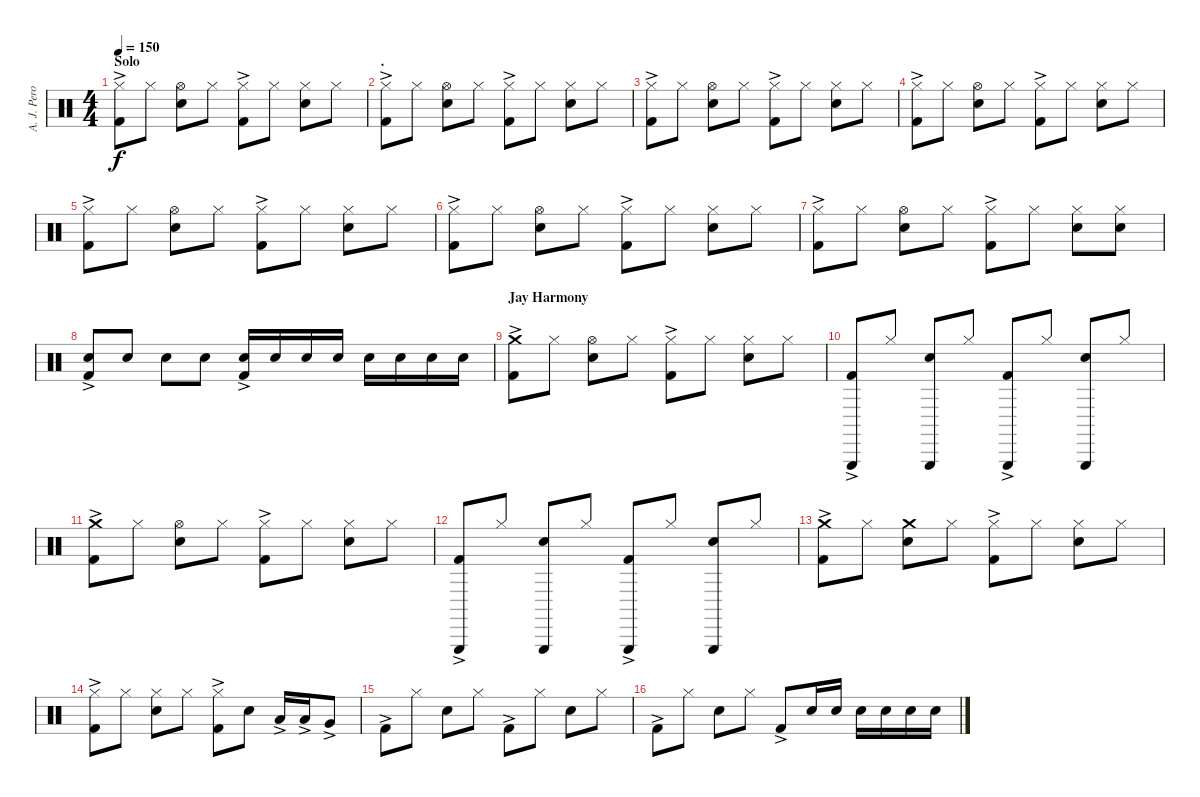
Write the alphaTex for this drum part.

\track ("A. J. Pero - Drums" "A. J. Pero") {instrument percussion}
\staff {score}
\articulation defaults
\ts (4 4)
\section ("" "Solo")
\tempo 150
\clef neutral
\ks c
("Hi-Hat (closed)" "Kick (hit) 2"{ac}).8{dy f} "Hi-Hat (closed)".8 ("Hi-Hat (open)" "Electric Snare (hit)").8 "Hi-Hat (closed)".8 ("Hi-Hat (closed)" "Kick (hit) 2"{ac}).8 "Hi-Hat (closed)".8 ("Hi-Hat (closed)" "Electric Snare (hit)").8 "Hi-Hat (closed)".8 |
\section ("" ".")
("Hi-Hat (closed)" "Kick (hit) 2"{ac}).8 "Hi-Hat (closed)".8 ("Hi-Hat (open)" "Electric Snare (hit)").8 "Hi-Hat (closed)".8 ("Hi-Hat (closed)" "Kick (hit) 2"{ac}).8 "Hi-Hat (closed)".8 ("Hi-Hat (closed)" "Electric Snare (hit)").8 "Hi-Hat (closed)".8 |
("Hi-Hat (closed)" "Kick (hit) 2"{ac}).8 "Hi-Hat (closed)".8 ("Hi-Hat (open)" "Electric Snare (hit)").8 "Hi-Hat (closed)".8 ("Hi-Hat (closed)" "Kick (hit) 2"{ac}).8 "Hi-Hat (closed)".8 ("Hi-Hat (closed)" "Electric Snare (hit)").8 "Hi-Hat (closed)".8 |
("Hi-Hat (closed)" "Kick (hit) 2"{ac}).8 "Hi-Hat (closed)".8 ("Hi-Hat (open)" "Electric Snare (hit)").8 "Hi-Hat (closed)".8 ("Hi-Hat (closed)" "Kick (hit) 2"{ac}).8 "Hi-Hat (closed)".8 ("Hi-Hat (closed)" "Electric Snare (hit)").8 "Hi-Hat (closed)".8 |
("Hi-Hat (closed)" "Kick (hit) 2"{ac}).8 "Hi-Hat (closed)".8 ("Hi-Hat (open)" "Electric Snare (hit)").8 "Hi-Hat (closed)".8 ("Hi-Hat (closed)" "Kick (hit) 2"{ac}).8 "Hi-Hat (closed)".8 ("Hi-Hat (closed)" "Electric Snare (hit)").8 "Hi-Hat (closed)".8 |
("Hi-Hat (closed)" "Kick (hit) 2"{ac}).8 "Hi-Hat (closed)".8 ("Hi-Hat (open)" "Electric Snare (hit)").8 "Hi-Hat (closed)".8 ("Hi-Hat (closed)" "Kick (hit) 2"{ac}).8 "Hi-Hat (closed)".8 ("Hi-Hat (closed)" "Electric Snare (hit)").8 "Hi-Hat (closed)".8 |
("Hi-Hat (closed)" "Kick (hit) 2"{ac}).8 "Hi-Hat (closed)".8 ("Hi-Hat (open)" "Electric Snare (hit)").8 "Hi-Hat (closed)".8 ("Hi-Hat (closed)" "Kick (hit) 2"{ac}).8 "Hi-Hat (closed)".8 ("Hi-Hat (closed)" "Electric Snare (hit)").8 ("Hi-Hat (closed)" "Electric Snare (hit)").8 |
("Electric Snare (hit)" "Kick (hit) 2"{ac}).8 "Electric Snare (hit)".8 "Electric Snare (hit)".8 "Electric Snare (hit)".8 ("Electric Snare (hit)" "Kick (hit) 2"{ac}).16 "Electric Snare (hit)".16 "Electric Snare (hit)".16 "Electric Snare (hit)".16 "Electric Snare (hit)".16 "Electric Snare (hit)".16 "Electric Snare (hit)".16 "Electric Snare (hit)".16 |
\section ("" "Jay Harmony")
("Crash medium (hit)" "Kick (hit) 2"{ac}).8 "Hi-Hat (closed)".8 ("Hi-Hat (open)" "Electric Snare (hit)").8 "Hi-Hat (closed)".8 ("Hi-Hat (closed)" "Kick (hit) 2"{ac}).8 "Hi-Hat (closed)".8 ("Hi-Hat (closed)" "Electric Snare (hit)").8 "Hi-Hat (closed)".8 |
("Triangle (hit)" "Kick (hit) 2"{ac}).8 "Hi-Hat (closed)".8 ("Triangle (hit)" "Electric Snare (hit)").8 "Hi-Hat (closed)".8 ("Triangle (hit)" "Kick (hit) 2"{ac}).8 "Hi-Hat (closed)".8 ("Triangle (hit)" "Electric Snare (hit)").8 "Hi-Hat (closed)".8 |
("Crash medium (hit)" "Kick (hit) 2"{ac}).8 "Hi-Hat (closed)".8 ("Hi-Hat (open)" "Electric Snare (hit)").8 "Hi-Hat (closed)".8 ("Hi-Hat (closed)" "Kick (hit) 2"{ac}).8 "Hi-Hat (closed)".8 ("Hi-Hat (closed)" "Electric Snare (hit)").8 "Hi-Hat (closed)".8 |
("Triangle (hit)" "Kick (hit) 2"{ac}).8 "Hi-Hat (closed)".8 ("Triangle (hit)" "Electric Snare (hit)").8 "Hi-Hat (closed)".8 ("Triangle (hit)" "Kick (hit) 2"{ac}).8 "Hi-Hat (closed)".8 ("Triangle (hit)" "Electric Snare (hit)").8 "Hi-Hat (closed)".8 |
("Crash medium (hit)" "Kick (hit) 2"{ac}).8 "Hi-Hat (closed)".8 ("Crash medium (hit)" "Electric Snare (hit)").8 "Hi-Hat (closed)".8 ("Hi-Hat (closed)" "Kick (hit) 2"{ac}).8 "Hi-Hat (closed)".8 ("Hi-Hat (closed)" "Electric Snare (hit)").8 "Hi-Hat (closed)".8 |
("Hi-Hat (closed)" "Kick (hit) 2"{ac}).8 "Hi-Hat (closed)".8 ("Hi-Hat (closed)" "Electric Snare (hit)").8 "Hi-Hat (closed)".8 ("Hi-Hat (closed)" "Kick (hit) 2"{ac}).8 "Electric Snare (hit)".8 "Low Floor Tom (hit)"{ac}.16 "Low Floor Tom (hit)"{ac}.16 "Very Low Tom (hit)"{ac}.8 |
"Kick (hit) 2"{ac}.8 "Hi-Hat (closed)".8 "Electric Snare (hit)".8 "Hi-Hat (closed)".8 "Kick (hit) 2"{ac}.8 "Hi-Hat (closed)".8 "Electric Snare (hit)".8 "Hi-Hat (closed)".8 |
"Kick (hit) 2"{ac}.8 "Hi-Hat (closed)".8 "Electric Snare (hit)".8 "Hi-Hat (closed)".8 "Kick (hit) 2"{ac}.8 "Electric Snare (hit)".16 "Electric Snare (hit)".16 "Electric Snare (hit)".16 "Electric Snare (hit)".16 "Electric Snare (hit)".16 "Electric Snare (hit)".16
